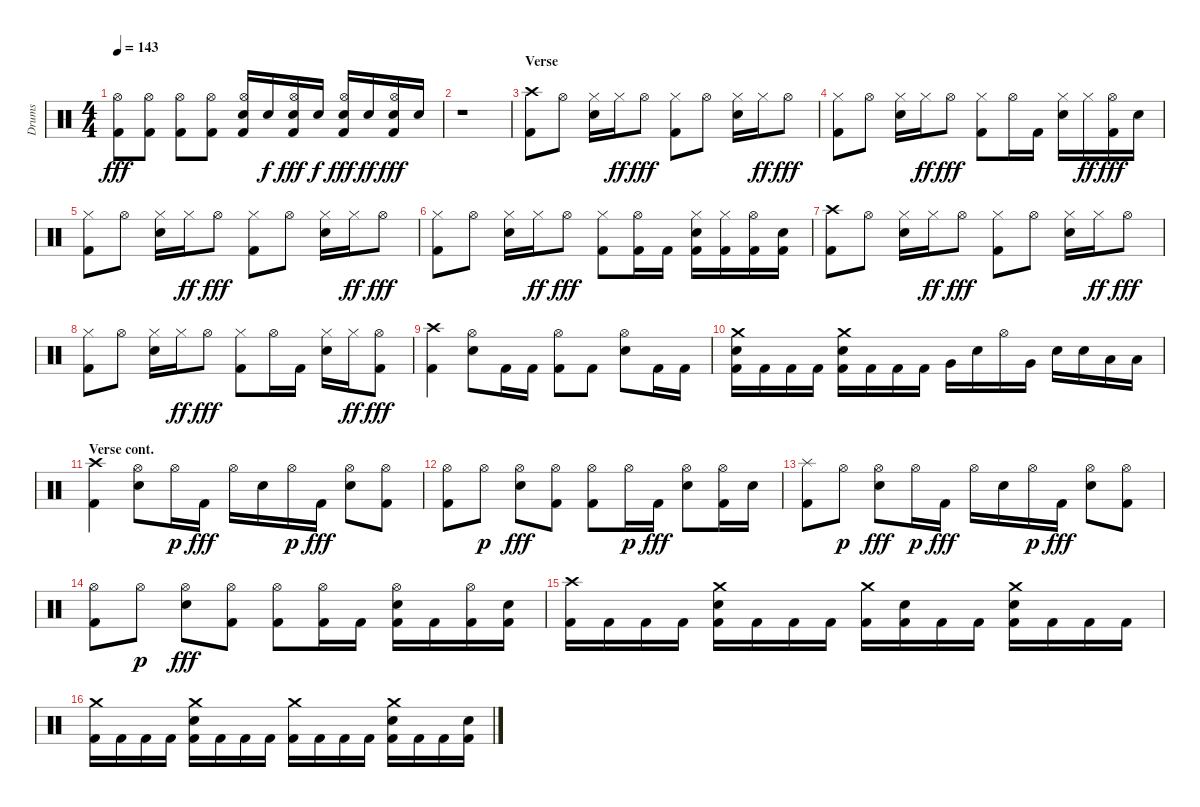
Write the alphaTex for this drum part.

\track ("Drums" "Drums") {instrument percussion}
\staff {score}
\articulation defaults
\ts (4 4)
\tempo 143
\clef neutral
\ks aminor
("Kick (hit) 2" "Hi-Hat (open)").8{dy fff} ("Kick (hit) 2" "Hi-Hat (open)").8 ("Kick (hit) 2" "Hi-Hat (open)").8 ("Kick (hit) 2" "Hi-Hat (open)").8 ("Kick (hit) 2" "Snare (hit) 2" "Hi-Hat (open)").16 "Snare (hit) 2".16{dy f} ("Kick (hit) 2" "Snare (hit) 2" "Hi-Hat (open)").16{dy fff} "Snare (hit) 2".16{dy f} ("Kick (hit) 2" "Snare (hit) 2" "Hi-Hat (open)").16{dy fff} "Snare (hit) 2".16{dy ff} ("Kick (hit) 2" "Snare (hit) 2" "Hi-Hat (open)").16{dy fff} "Snare (hit) 2".16 |
r.1 |
\section ("" "Verse")
("Kick (hit) 2" "Crash high (hit)").8 "Hi-Hat (open)".8 ("Snare (hit) 2" "Hi-Hat (closed)").16 "Hi-Hat (closed)".16{dy ff} "Hi-Hat (open)".8{dy fff} ("Kick (hit) 2" "Hi-Hat (closed)").8 "Hi-Hat (open)".8 ("Snare (hit) 2" "Hi-Hat (closed)").16 "Hi-Hat (closed)".16{dy ff} "Hi-Hat (open)".8{dy fff} |
("Kick (hit) 2" "Hi-Hat (closed)").8 "Hi-Hat (open)".8 ("Snare (hit) 2" "Hi-Hat (closed)").16 "Hi-Hat (closed)".16{dy ff} "Hi-Hat (open)".8{dy fff} ("Kick (hit) 2" "Hi-Hat (closed)").8 "Hi-Hat (open)".16 "Kick (hit) 2".16 ("Snare (hit) 2" "Hi-Hat (closed)").16 "Hi-Hat (closed)".16{dy ff} ("Kick (hit) 2" "Hi-Hat (open)").16{dy fff} "Snare (hit) 2".16 |
("Kick (hit) 2" "Hi-Hat (closed)").8 "Hi-Hat (open)".8 ("Snare (hit) 2" "Hi-Hat (closed)").16 "Hi-Hat (closed)".16{dy ff} "Hi-Hat (open)".8{dy fff} ("Kick (hit) 2" "Hi-Hat (closed)").8 "Hi-Hat (open)".8 ("Snare (hit) 2" "Hi-Hat (closed)").16 "Hi-Hat (closed)".16{dy ff} "Hi-Hat (open)".8{dy fff} |
("Kick (hit) 2" "Hi-Hat (closed)").8 "Hi-Hat (open)".8 ("Snare (hit) 2" "Hi-Hat (closed)").16 "Hi-Hat (closed)".16{dy ff} "Hi-Hat (open)".8{dy fff} ("Kick (hit) 2" "Hi-Hat (closed)").8 ("Kick (hit) 2" "Hi-Hat (open)").16 "Kick (hit) 2".16 ("Kick (hit) 2" "Snare (hit) 2" "Hi-Hat (closed)").16 ("Kick (hit) 2" "Hi-Hat (closed)").16 ("Kick (hit) 2" "Hi-Hat (open)").16 ("Kick (hit) 2" "Snare (hit) 2").16 |
("Kick (hit) 2" "Crash high (hit)").8 "Hi-Hat (open)".8 ("Snare (hit) 2" "Hi-Hat (closed)").16 "Hi-Hat (closed)".16{dy ff} "Hi-Hat (open)".8{dy fff} ("Kick (hit) 2" "Hi-Hat (closed)").8 "Hi-Hat (open)".8 ("Snare (hit) 2" "Hi-Hat (closed)").16 "Hi-Hat (closed)".16{dy ff} "Hi-Hat (open)".8{dy fff} |
("Kick (hit) 2" "Hi-Hat (closed)").8 "Hi-Hat (open)".8 ("Snare (hit) 2" "Hi-Hat (closed)").16 "Hi-Hat (closed)".16{dy ff} "Hi-Hat (open)".8{dy fff} ("Kick (hit) 2" "Hi-Hat (closed)").8 "Hi-Hat (open)".16 "Kick (hit) 2".16 ("Snare (hit) 2" "Hi-Hat (closed)").16 "Hi-Hat (closed)".16{dy ff} ("Kick (hit) 2" "Hi-Hat (open)").8{dy fff} |
("Kick (hit) 2" "Crash high (hit)").4 ("Snare (hit) 2" "Hi-Hat (open)").8 "Kick (hit) 2".16 "Kick (hit) 2".16 ("Kick (hit) 2" "Hi-Hat (open)").8 "Kick (hit) 2".8 ("Snare (hit) 2" "Hi-Hat (open)").8 "Kick (hit) 2".16 "Kick (hit) 2".16 |
("Kick (hit) 2" "Snare (hit) 2" "Crash medium (hit)").16 "Kick (hit) 2".16 "Kick (hit) 2".16 "Kick (hit) 2".16 ("Kick (hit) 2" "Snare (hit) 2" "Crash medium (hit)").16 "Kick (hit) 2".16 "Kick (hit) 2".16 "Kick (hit) 2".16 "Very Low Tom (hit)".16 "Snare (hit) 2".16 "Hi-Hat (open)".16 "Very Low Tom (hit)".16 "Snare (hit) 2".16 "Snare (hit) 2".16 "Low Floor Tom (hit)".16 "Low Floor Tom (hit)".16 |
\section ("" "Verse cont.")
("Kick (hit) 2" "Crash high (hit)").4 ("Snare (hit) 2" "Hi-Hat (open)").8 "Hi-Hat (open)".16{dy p} "Kick (hit) 2".16{dy fff} "Hi-Hat (open)".16 "Snare (hit) 2".16 "Hi-Hat (open)".16{dy p} "Kick (hit) 2".16{dy fff} ("Snare (hit) 2" "Hi-Hat (open)").8 ("Kick (hit) 2" "Hi-Hat (open)").8 |
("Kick (hit) 2" "Hi-Hat (open)").8 "Hi-Hat (open)".8{dy p} ("Snare (hit) 2" "Hi-Hat (open)").8{dy fff} ("Kick (hit) 2" "Hi-Hat (open)").8 ("Kick (hit) 2" "Hi-Hat (open)").8 "Hi-Hat (open)".16{dy p} "Kick (hit) 2".16{dy fff} ("Snare (hit) 2" "Hi-Hat (open)").8 ("Kick (hit) 2" "Hi-Hat (open)").16 "Snare (hit) 2".16 |
("Kick (hit) 2" "Splash (hit)").8 "Hi-Hat (open)".8{dy p} ("Snare (hit) 2" "Hi-Hat (open)").8{dy fff} "Hi-Hat (open)".16{dy p} "Kick (hit) 2".16{dy fff} "Hi-Hat (open)".16 "Snare (hit) 2".16 "Hi-Hat (open)".16{dy p} "Kick (hit) 2".16{dy fff} ("Snare (hit) 2" "Hi-Hat (open)").8 ("Kick (hit) 2" "Hi-Hat (open)").8 |
("Kick (hit) 2" "Hi-Hat (open)").8 "Hi-Hat (open)".8{dy p} ("Snare (hit) 2" "Hi-Hat (open)").8{dy fff} ("Kick (hit) 2" "Hi-Hat (open)").8 ("Kick (hit) 2" "Hi-Hat (open)").8 ("Kick (hit) 2" "Hi-Hat (open)").16 "Kick (hit) 2".16 ("Kick (hit) 2" "Snare (hit) 2" "Hi-Hat (open)").16 "Kick (hit) 2".16 ("Kick (hit) 2" "Hi-Hat (open)").16 ("Kick (hit) 2" "Snare (hit) 2").16 |
("Kick (hit) 2" "Crash high (hit)").16 "Kick (hit) 2".16 "Kick (hit) 2".16 "Kick (hit) 2".16 ("Kick (hit) 2" "Snare (hit) 2" "Crash medium (hit)").16 "Kick (hit) 2".16 "Kick (hit) 2".16 "Kick (hit) 2".16 ("Kick (hit) 2" "Crash medium (hit)").16 ("Kick (hit) 2" "Snare (hit) 2").16 "Kick (hit) 2".16 "Kick (hit) 2".16 ("Kick (hit) 2" "Snare (hit) 2" "Crash medium (hit)").16 "Kick (hit) 2".16 "Kick (hit) 2".16 "Kick (hit) 2".16 |
("Kick (hit) 2" "Crash medium (hit)").16 "Kick (hit) 2".16 "Kick (hit) 2".16 "Kick (hit) 2".16 ("Kick (hit) 2" "Snare (hit) 2" "Crash medium (hit)").16 "Kick (hit) 2".16 "Kick (hit) 2".16 "Kick (hit) 2".16 ("Kick (hit) 2" "Crash medium (hit)").16 "Kick (hit) 2".16 "Kick (hit) 2".16 "Kick (hit) 2".16 ("Kick (hit) 2" "Snare (hit) 2" "Crash medium (hit)").16 "Kick (hit) 2".16 "Kick (hit) 2".16 ("Kick (hit) 2" "Snare (hit) 2").16
